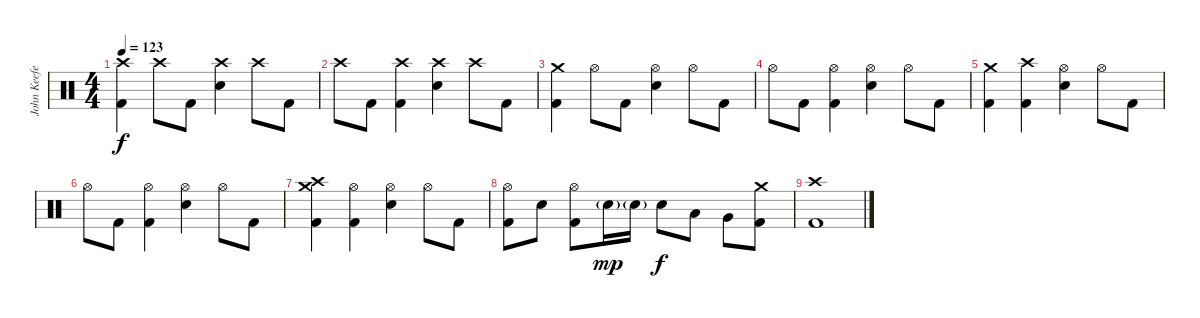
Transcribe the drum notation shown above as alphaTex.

\track ("John Keefe - Drums" "John Keefe") {instrument percussion}
\staff {score}
\articulation defaults
\ts (4 4)
\tempo 123
\clef neutral
\ks c
("Crash high (hit)" "Kick (hit) 2").4{dy f} "Crash high (hit)".8 "Kick (hit) 2".8 ("Crash high (hit)" "Snare (hit) 2").4 "Crash high (hit)".8 "Kick (hit) 2".8 |
"Crash high (hit)".8 "Kick (hit) 2".8 ("Crash high (hit)" "Kick (hit) 2").4 ("Crash high (hit)" "Snare (hit) 2").4 "Crash high (hit)".8 "Kick (hit) 2".8 |
("Crash medium (hit)" "Kick (hit) 2").4 "Hi-Hat (open)".8 "Kick (hit) 2".8 ("Hi-Hat (open)" "Snare (hit) 2").4 "Hi-Hat (open)".8 "Kick (hit) 2".8 |
"Hi-Hat (open)".8 "Kick (hit) 2".8 ("Hi-Hat (open)" "Kick (hit) 2").4 ("Hi-Hat (open)" "Snare (hit) 2").4 "Hi-Hat (open)".8 "Kick (hit) 2".8 |
("Crash medium (hit)" "Kick (hit) 2").4 ("Crash high (hit)" "Kick (hit) 2").4 ("Hi-Hat (open)" "Snare (hit) 2").4 "Hi-Hat (open)".8 "Kick (hit) 2".8 |
"Hi-Hat (open)".8 "Kick (hit) 2".8 ("Hi-Hat (open)" "Kick (hit) 2").4 ("Hi-Hat (open)" "Snare (hit) 2").4 "Hi-Hat (open)".8 "Kick (hit) 2".8 |
("Crash high (hit)" "Crash medium (hit)" "Kick (hit) 2").4 ("Hi-Hat (open)" "Kick (hit) 2").4 ("Hi-Hat (open)" "Snare (hit) 2").4 "Hi-Hat (open)".8 "Kick (hit) 2".8 |
("Hi-Hat (open)" "Kick (hit) 2").8 "Snare (hit) 2".8 ("Hi-Hat (open)" "Kick (hit) 2").8 "Snare (hit) 2"{g}.16{dy mp} "Snare (hit) 2"{g}.16 "Snare (hit) 2".8{dy f} "Low Tom (hit)".8 "Very Low Tom (hit)".8 ("Crash medium (hit)" "Kick (hit) 2").8 |
("Crash high (hit)" "Kick (hit) 2").1
